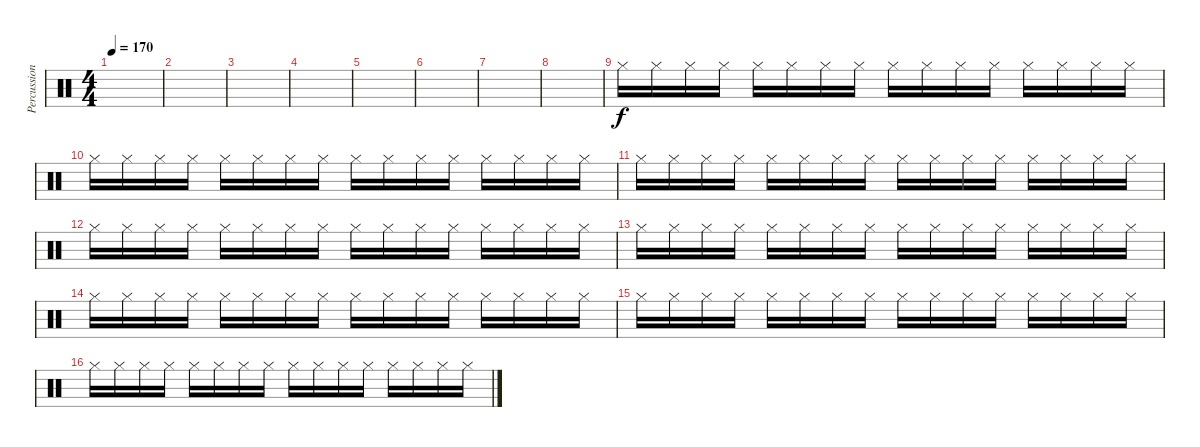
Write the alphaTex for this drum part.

\track ("Percussion" "Percussion") {instrument percussion}
\staff {score}
\articulation defaults
\ts (4 4)
\tempo 170
\clef neutral
\ks c
|
|
|
|
|
|
|
|
"Hi-Hat (closed)".16 "Hi-Hat (closed)".16 "Hi-Hat (closed)".16 "Hi-Hat (closed)".16 "Hi-Hat (closed)".16 "Hi-Hat (closed)".16 "Hi-Hat (closed)".16 "Hi-Hat (closed)".16 "Hi-Hat (closed)".16 "Hi-Hat (closed)".16 "Hi-Hat (closed)".16 "Hi-Hat (closed)".16 "Hi-Hat (closed)".16 "Hi-Hat (closed)".16 "Hi-Hat (closed)".16 "Hi-Hat (closed)".16 |
"Hi-Hat (closed)".16 "Hi-Hat (closed)".16 "Hi-Hat (closed)".16 "Hi-Hat (closed)".16 "Hi-Hat (closed)".16 "Hi-Hat (closed)".16 "Hi-Hat (closed)".16 "Hi-Hat (closed)".16 "Hi-Hat (closed)".16 "Hi-Hat (closed)".16 "Hi-Hat (closed)".16 "Hi-Hat (closed)".16 "Hi-Hat (closed)".16 "Hi-Hat (closed)".16 "Hi-Hat (closed)".16 "Hi-Hat (closed)".16 |
"Hi-Hat (closed)".16 "Hi-Hat (closed)".16 "Hi-Hat (closed)".16 "Hi-Hat (closed)".16 "Hi-Hat (closed)".16 "Hi-Hat (closed)".16 "Hi-Hat (closed)".16 "Hi-Hat (closed)".16 "Hi-Hat (closed)".16 "Hi-Hat (closed)".16 "Hi-Hat (closed)".16 "Hi-Hat (closed)".16 "Hi-Hat (closed)".16 "Hi-Hat (closed)".16 "Hi-Hat (closed)".16 "Hi-Hat (closed)".16 |
"Hi-Hat (closed)".16 "Hi-Hat (closed)".16 "Hi-Hat (closed)".16 "Hi-Hat (closed)".16 "Hi-Hat (closed)".16 "Hi-Hat (closed)".16 "Hi-Hat (closed)".16 "Hi-Hat (closed)".16 "Hi-Hat (closed)".16 "Hi-Hat (closed)".16 "Hi-Hat (closed)".16 "Hi-Hat (closed)".16 "Hi-Hat (closed)".16 "Hi-Hat (closed)".16 "Hi-Hat (closed)".16 "Hi-Hat (closed)".16 |
"Hi-Hat (closed)".16 "Hi-Hat (closed)".16 "Hi-Hat (closed)".16 "Hi-Hat (closed)".16 "Hi-Hat (closed)".16 "Hi-Hat (closed)".16 "Hi-Hat (closed)".16 "Hi-Hat (closed)".16 "Hi-Hat (closed)".16 "Hi-Hat (closed)".16 "Hi-Hat (closed)".16 "Hi-Hat (closed)".16 "Hi-Hat (closed)".16 "Hi-Hat (closed)".16 "Hi-Hat (closed)".16 "Hi-Hat (closed)".16 |
"Hi-Hat (closed)".16 "Hi-Hat (closed)".16 "Hi-Hat (closed)".16 "Hi-Hat (closed)".16 "Hi-Hat (closed)".16 "Hi-Hat (closed)".16 "Hi-Hat (closed)".16 "Hi-Hat (closed)".16 "Hi-Hat (closed)".16 "Hi-Hat (closed)".16 "Hi-Hat (closed)".16 "Hi-Hat (closed)".16 "Hi-Hat (closed)".16 "Hi-Hat (closed)".16 "Hi-Hat (closed)".16 "Hi-Hat (closed)".16 |
"Hi-Hat (closed)".16 "Hi-Hat (closed)".16 "Hi-Hat (closed)".16 "Hi-Hat (closed)".16 "Hi-Hat (closed)".16 "Hi-Hat (closed)".16 "Hi-Hat (closed)".16 "Hi-Hat (closed)".16 "Hi-Hat (closed)".16 "Hi-Hat (closed)".16 "Hi-Hat (closed)".16 "Hi-Hat (closed)".16 "Hi-Hat (closed)".16 "Hi-Hat (closed)".16 "Hi-Hat (closed)".16 "Hi-Hat (closed)".16 |
"Hi-Hat (closed)".16 "Hi-Hat (closed)".16 "Hi-Hat (closed)".16 "Hi-Hat (closed)".16 "Hi-Hat (closed)".16 "Hi-Hat (closed)".16 "Hi-Hat (closed)".16 "Hi-Hat (closed)".16 "Hi-Hat (closed)".16 "Hi-Hat (closed)".16 "Hi-Hat (closed)".16 "Hi-Hat (closed)".16 "Hi-Hat (closed)".16 "Hi-Hat (closed)".16 "Hi-Hat (closed)".16 "Hi-Hat (closed)".16
